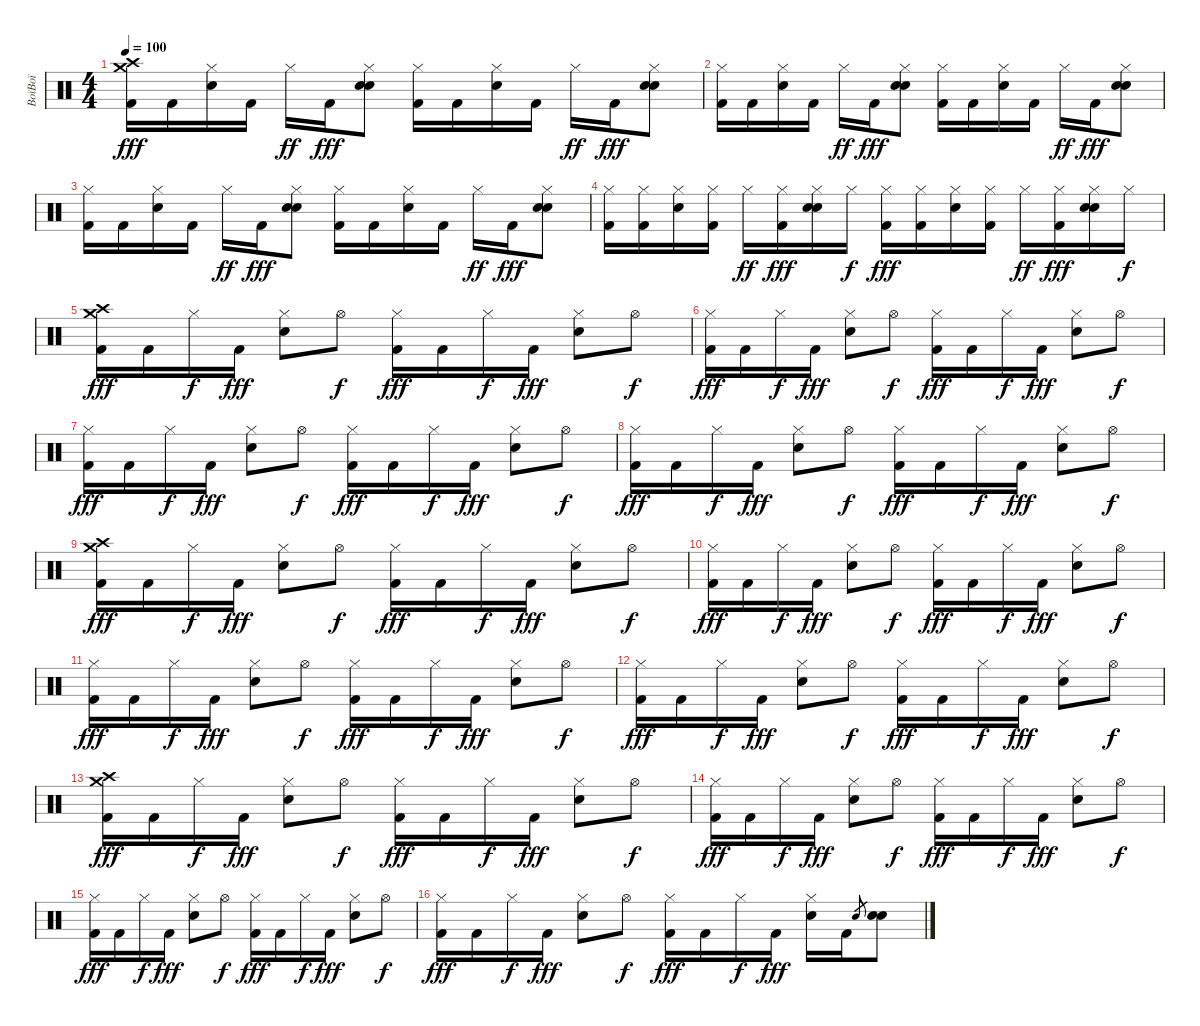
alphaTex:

\track ("BoïBoï" "BoïBoï") {instrument percussion}
\staff {score}
\articulation defaults
\ts (4 4)
\tempo 100
\clef neutral
\ks c
("Crash medium (hit)" "Crash high (hit)" "Kick (hit) 2").16{dy fff} "Kick (hit) 2".16 ("Hi-Hat (closed)" "Electric Snare (hit)").16 "Kick (hit) 2".16 "Hi-Hat (closed)".16{dy ff} "Kick (hit) 2".16{dy fff} ("Hi-Hat (closed)" "Electric Snare (hit)" "Snare (hit) 2").8 ("Hi-Hat (closed)" "Kick (hit) 2").16 "Kick (hit) 2".16 ("Hi-Hat (closed)" "Electric Snare (hit)").16 "Kick (hit) 2".16 "Hi-Hat (closed)".16{dy ff} "Kick (hit) 2".16{dy fff} ("Hi-Hat (closed)" "Electric Snare (hit)" "Snare (hit) 2").8 |
("Hi-Hat (closed)" "Kick (hit) 2").16 "Kick (hit) 2".16 ("Hi-Hat (closed)" "Electric Snare (hit)").16 "Kick (hit) 2".16 "Hi-Hat (closed)".16{dy ff} "Kick (hit) 2".16{dy fff} ("Hi-Hat (closed)" "Electric Snare (hit)" "Snare (hit) 2").8 ("Hi-Hat (closed)" "Kick (hit) 2").16 "Kick (hit) 2".16 ("Hi-Hat (closed)" "Electric Snare (hit)").16 "Kick (hit) 2".16 "Hi-Hat (closed)".16{dy ff} "Kick (hit) 2".16{dy fff} ("Hi-Hat (closed)" "Electric Snare (hit)" "Snare (hit) 2").8 |
("Hi-Hat (closed)" "Kick (hit) 2").16 "Kick (hit) 2".16 ("Hi-Hat (closed)" "Electric Snare (hit)").16 "Kick (hit) 2".16 "Hi-Hat (closed)".16{dy ff} "Kick (hit) 2".16{dy fff} ("Hi-Hat (closed)" "Electric Snare (hit)" "Snare (hit) 2").8 ("Hi-Hat (closed)" "Kick (hit) 2").16 "Kick (hit) 2".16 ("Hi-Hat (closed)" "Electric Snare (hit)").16 "Kick (hit) 2".16 "Hi-Hat (closed)".16{dy ff} "Kick (hit) 2".16{dy fff} ("Hi-Hat (closed)" "Electric Snare (hit)" "Snare (hit) 2").8 |
("Hi-Hat (closed)" "Kick (hit) 2").16 ("Hi-Hat (closed)" "Kick (hit) 2").16 ("Hi-Hat (closed)" "Electric Snare (hit)").16 ("Hi-Hat (closed)" "Kick (hit) 2").16 "Hi-Hat (closed)".16{dy ff} ("Hi-Hat (closed)" "Kick (hit) 2").16{dy fff} ("Hi-Hat (closed)" "Electric Snare (hit)" "Snare (hit) 2").16 "Hi-Hat (closed)".16{dy f} ("Hi-Hat (closed)" "Kick (hit) 2").16{dy fff} ("Hi-Hat (closed)" "Kick (hit) 2").16 ("Hi-Hat (closed)" "Electric Snare (hit)").16 ("Hi-Hat (closed)" "Kick (hit) 2").16 "Hi-Hat (closed)".16{dy ff} ("Hi-Hat (closed)" "Kick (hit) 2").16{dy fff} ("Hi-Hat (closed)" "Electric Snare (hit)" "Snare (hit) 2").16 "Hi-Hat (closed)".16{dy f} |
("Crash medium (hit)" "Crash high (hit)" "Kick (hit) 2").16{dy fff} "Kick (hit) 2".16 "Hi-Hat (closed)".16{dy f} "Kick (hit) 2".16{dy fff} ("Hi-Hat (closed)" "Electric Snare (hit)").8 "Hi-Hat (open)".8{dy f} ("Hi-Hat (closed)" "Kick (hit) 2").16{dy fff} "Kick (hit) 2".16 "Hi-Hat (closed)".16{dy f} "Kick (hit) 2".16{dy fff} ("Hi-Hat (closed)" "Electric Snare (hit)").8 "Hi-Hat (open)".8{dy f} |
("Hi-Hat (closed)" "Kick (hit) 2").16{dy fff} "Kick (hit) 2".16 "Hi-Hat (closed)".16{dy f} "Kick (hit) 2".16{dy fff} ("Hi-Hat (closed)" "Electric Snare (hit)").8 "Hi-Hat (open)".8{dy f} ("Hi-Hat (closed)" "Kick (hit) 2").16{dy fff} "Kick (hit) 2".16 "Hi-Hat (closed)".16{dy f} "Kick (hit) 2".16{dy fff} ("Hi-Hat (closed)" "Electric Snare (hit)").8 "Hi-Hat (open)".8{dy f} |
("Hi-Hat (closed)" "Kick (hit) 2").16{dy fff} "Kick (hit) 2".16 "Hi-Hat (closed)".16{dy f} "Kick (hit) 2".16{dy fff} ("Hi-Hat (closed)" "Electric Snare (hit)").8 "Hi-Hat (open)".8{dy f} ("Hi-Hat (closed)" "Kick (hit) 2").16{dy fff} "Kick (hit) 2".16 "Hi-Hat (closed)".16{dy f} "Kick (hit) 2".16{dy fff} ("Hi-Hat (closed)" "Electric Snare (hit)").8 "Hi-Hat (open)".8{dy f} |
("Hi-Hat (closed)" "Kick (hit) 2").16{dy fff} "Kick (hit) 2".16 "Hi-Hat (closed)".16{dy f} "Kick (hit) 2".16{dy fff} ("Hi-Hat (closed)" "Electric Snare (hit)").8 "Hi-Hat (open)".8{dy f} ("Hi-Hat (closed)" "Kick (hit) 2").16{dy fff} "Kick (hit) 2".16 "Hi-Hat (closed)".16{dy f} "Kick (hit) 2".16{dy fff} ("Hi-Hat (closed)" "Electric Snare (hit)").8 "Hi-Hat (open)".8{dy f} |
("Crash medium (hit)" "Crash high (hit)" "Kick (hit) 2").16{dy fff} "Kick (hit) 2".16 "Hi-Hat (closed)".16{dy f} "Kick (hit) 2".16{dy fff} ("Hi-Hat (closed)" "Electric Snare (hit)").8 "Hi-Hat (open)".8{dy f} ("Hi-Hat (closed)" "Kick (hit) 2").16{dy fff} "Kick (hit) 2".16 "Hi-Hat (closed)".16{dy f} "Kick (hit) 2".16{dy fff} ("Hi-Hat (closed)" "Electric Snare (hit)").8 "Hi-Hat (open)".8{dy f} |
("Hi-Hat (closed)" "Kick (hit) 2").16{dy fff} "Kick (hit) 2".16 "Hi-Hat (closed)".16{dy f} "Kick (hit) 2".16{dy fff} ("Hi-Hat (closed)" "Electric Snare (hit)").8 "Hi-Hat (open)".8{dy f} ("Hi-Hat (closed)" "Kick (hit) 2").16{dy fff} "Kick (hit) 2".16 "Hi-Hat (closed)".16{dy f} "Kick (hit) 2".16{dy fff} ("Hi-Hat (closed)" "Electric Snare (hit)").8 "Hi-Hat (open)".8{dy f} |
("Hi-Hat (closed)" "Kick (hit) 2").16{dy fff} "Kick (hit) 2".16 "Hi-Hat (closed)".16{dy f} "Kick (hit) 2".16{dy fff} ("Hi-Hat (closed)" "Electric Snare (hit)").8 "Hi-Hat (open)".8{dy f} ("Hi-Hat (closed)" "Kick (hit) 2").16{dy fff} "Kick (hit) 2".16 "Hi-Hat (closed)".16{dy f} "Kick (hit) 2".16{dy fff} ("Hi-Hat (closed)" "Electric Snare (hit)").8 "Hi-Hat (open)".8{dy f} |
("Hi-Hat (closed)" "Kick (hit) 2").16{dy fff} "Kick (hit) 2".16 "Hi-Hat (closed)".16{dy f} "Kick (hit) 2".16{dy fff} ("Hi-Hat (closed)" "Electric Snare (hit)").8 "Hi-Hat (open)".8{dy f} ("Hi-Hat (closed)" "Kick (hit) 2").16{dy fff} "Kick (hit) 2".16 "Hi-Hat (closed)".16{dy f} "Kick (hit) 2".16{dy fff} ("Hi-Hat (closed)" "Electric Snare (hit)").8 "Hi-Hat (open)".8{dy f} |
("Crash medium (hit)" "Crash high (hit)" "Kick (hit) 2").16{dy fff} "Kick (hit) 2".16 "Hi-Hat (closed)".16{dy f} "Kick (hit) 2".16{dy fff} ("Hi-Hat (closed)" "Electric Snare (hit)").8 "Hi-Hat (open)".8{dy f} ("Hi-Hat (closed)" "Kick (hit) 2").16{dy fff} "Kick (hit) 2".16 "Hi-Hat (closed)".16{dy f} "Kick (hit) 2".16{dy fff} ("Hi-Hat (closed)" "Electric Snare (hit)").8 "Hi-Hat (open)".8{dy f} |
("Hi-Hat (closed)" "Kick (hit) 2").16{dy fff} "Kick (hit) 2".16 "Hi-Hat (closed)".16{dy f} "Kick (hit) 2".16{dy fff} ("Hi-Hat (closed)" "Electric Snare (hit)").8 "Hi-Hat (open)".8{dy f} ("Hi-Hat (closed)" "Kick (hit) 2").16{dy fff} "Kick (hit) 2".16 "Hi-Hat (closed)".16{dy f} "Kick (hit) 2".16{dy fff} ("Hi-Hat (closed)" "Electric Snare (hit)").8 "Hi-Hat (open)".8{dy f} |
("Hi-Hat (closed)" "Kick (hit) 2").16{dy fff} "Kick (hit) 2".16 "Hi-Hat (closed)".16{dy f} "Kick (hit) 2".16{dy fff} ("Hi-Hat (closed)" "Electric Snare (hit)").8 "Hi-Hat (open)".8{dy f} ("Hi-Hat (closed)" "Kick (hit) 2").16{dy fff} "Kick (hit) 2".16 "Hi-Hat (closed)".16{dy f} "Kick (hit) 2".16{dy fff} ("Hi-Hat (closed)" "Electric Snare (hit)").8 "Hi-Hat (open)".8{dy f} |
("Hi-Hat (closed)" "Kick (hit) 2").16{dy fff} "Kick (hit) 2".16 "Hi-Hat (closed)".16{dy f} "Kick (hit) 2".16{dy fff} ("Hi-Hat (closed)" "Electric Snare (hit)").8 "Hi-Hat (open)".8{dy f} ("Hi-Hat (closed)" "Kick (hit) 2").16{dy fff} "Kick (hit) 2".16 "Hi-Hat (closed)".16{dy f} "Kick (hit) 2".16{dy fff} ("Hi-Hat (closed)" "Electric Snare (hit)").16 "Kick (hit) 2".16 "Electric Snare (hit)".8{gr} ("Electric Snare (hit)" "Snare (hit) 2").8
